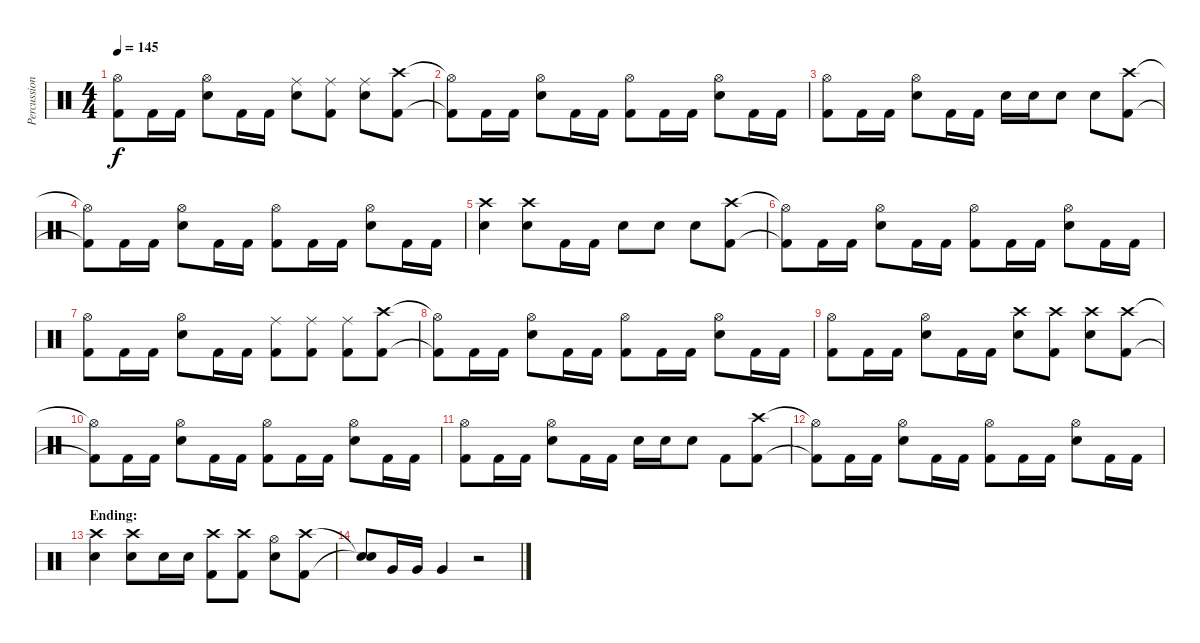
\track ("Percussion" "Percussion") {instrument percussion}
\staff {score}
\articulation defaults
\ts (4 4)
\tempo 145
\clef neutral
\ks c
("Hi-Hat (open)" "Kick (hit) 2").8{dy f} "Kick (hit) 2".16 "Kick (hit) 2".16 ("Hi-Hat (open)" "Electric Snare (hit)").8 "Kick (hit) 2".16 "Kick (hit) 2".16 ("Ride (middle)" "Electric Snare (hit)").8 ("Ride (middle)" "Kick (hit) 2").8 ("Ride (middle)" "Electric Snare (hit)").8 ("Crash high (hit)" "Kick (hit) 2").8 |
("Hi-Hat (open)"{t} "Kick (hit) 2"{t}).8 "Kick (hit) 2".16 "Kick (hit) 2".16 ("Hi-Hat (open)" "Electric Snare (hit)").8 "Kick (hit) 2".16 "Kick (hit) 2".16 ("Hi-Hat (open)" "Kick (hit) 2").8 "Kick (hit) 2".16 "Kick (hit) 2".16 ("Hi-Hat (open)" "Electric Snare (hit)").8 "Kick (hit) 2".16 "Kick (hit) 2".16 |
("Hi-Hat (open)" "Kick (hit) 2").8 "Kick (hit) 2".16 "Kick (hit) 2".16 ("Hi-Hat (open)" "Electric Snare (hit)").8 "Kick (hit) 2".16 "Kick (hit) 2".16 "Electric Snare (hit)".16 "Electric Snare (hit)".16 "Electric Snare (hit)".8 "Electric Snare (hit)".8 ("Crash high (hit)" "Kick (hit) 2").8 |
("Hi-Hat (open)"{t} "Kick (hit) 2"{t}).8 "Kick (hit) 2".16 "Kick (hit) 2".16 ("Hi-Hat (open)" "Electric Snare (hit)").8 "Kick (hit) 2".16 "Kick (hit) 2".16 ("Hi-Hat (open)" "Kick (hit) 2").8 "Kick (hit) 2".16 "Kick (hit) 2".16 ("Hi-Hat (open)" "Electric Snare (hit)").8 "Kick (hit) 2".16 "Kick (hit) 2".16 |
("Crash high (hit)" "Electric Snare (hit)").4 ("Crash high (hit)" "Electric Snare (hit)").8 "Kick (hit) 2".16 "Kick (hit) 2".16 "Electric Snare (hit)".8 "Electric Snare (hit)".8 "Electric Snare (hit)".8 ("Crash high (hit)" "Kick (hit) 2").8 |
("Hi-Hat (open)"{t} "Kick (hit) 2"{t}).8 "Kick (hit) 2".16 "Kick (hit) 2".16 ("Hi-Hat (open)" "Electric Snare (hit)").8 "Kick (hit) 2".16 "Kick (hit) 2".16 ("Hi-Hat (open)" "Kick (hit) 2").8 "Kick (hit) 2".16 "Kick (hit) 2".16 ("Hi-Hat (open)" "Electric Snare (hit)").8 "Kick (hit) 2".16 "Kick (hit) 2".16 |
("Hi-Hat (open)" "Kick (hit) 2").8 "Kick (hit) 2".16 "Kick (hit) 2".16 ("Hi-Hat (open)" "Electric Snare (hit)").8 "Kick (hit) 2".16 "Kick (hit) 2".16 ("Ride (middle)" "Kick (hit) 2").8 ("Ride (middle)" "Kick (hit) 2").8 ("Ride (middle)" "Kick (hit) 2").8 ("Crash high (hit)" "Kick (hit) 2").8 |
("Hi-Hat (open)"{t} "Kick (hit) 2"{t}).8 "Kick (hit) 2".16 "Kick (hit) 2".16 ("Hi-Hat (open)" "Electric Snare (hit)").8 "Kick (hit) 2".16 "Kick (hit) 2".16 ("Hi-Hat (open)" "Kick (hit) 2").8 "Kick (hit) 2".16 "Kick (hit) 2".16 ("Hi-Hat (open)" "Electric Snare (hit)").8 "Kick (hit) 2".16 "Kick (hit) 2".16 |
("Hi-Hat (open)" "Kick (hit) 2").8 "Kick (hit) 2".16 "Kick (hit) 2".16 ("Hi-Hat (open)" "Electric Snare (hit)").8 "Kick (hit) 2".16 "Kick (hit) 2".16 ("Crash high (hit)" "Electric Snare (hit)").8 ("Crash high (hit)" "Kick (hit) 2").8 ("Crash high (hit)" "Electric Snare (hit)").8 ("Crash high (hit)" "Kick (hit) 2").8 |
("Hi-Hat (open)"{t} "Kick (hit) 2"{t}).8 "Kick (hit) 2".16 "Kick (hit) 2".16 ("Hi-Hat (open)" "Electric Snare (hit)").8 "Kick (hit) 2".16 "Kick (hit) 2".16 ("Hi-Hat (open)" "Kick (hit) 2").8 "Kick (hit) 2".16 "Kick (hit) 2".16 ("Hi-Hat (open)" "Electric Snare (hit)").8 "Kick (hit) 2".16 "Kick (hit) 2".16 |
("Hi-Hat (open)" "Kick (hit) 2").8 "Kick (hit) 2".16 "Kick (hit) 2".16 ("Hi-Hat (open)" "Electric Snare (hit)").8 "Kick (hit) 2".16 "Kick (hit) 2".16 "Electric Snare (hit)".16 "Electric Snare (hit)".16 "Electric Snare (hit)".8 "Kick (hit) 2".8 ("Crash high (hit)" "Kick (hit) 2").8 |
("Hi-Hat (open)"{t} "Kick (hit) 2"{t}).8 "Kick (hit) 2".16 "Kick (hit) 2".16 ("Hi-Hat (open)" "Electric Snare (hit)").8 "Kick (hit) 2".16 "Kick (hit) 2".16 ("Hi-Hat (open)" "Kick (hit) 2").8 "Kick (hit) 2".16 "Kick (hit) 2".16 ("Hi-Hat (open)" "Electric Snare (hit)").8 "Kick (hit) 2".16 "Kick (hit) 2".16 |
\section ("" "Ending:")
("Crash high (hit)" "Electric Snare (hit)").4 ("Crash high (hit)" "Electric Snare (hit)").8 "Electric Snare (hit)".16 "Electric Snare (hit)".16 ("Crash high (hit)" "Kick (hit) 2").8 ("Crash high (hit)" "Kick (hit) 2").8 ("Hi-Hat (open)" "Electric Snare (hit)").8 ("Crash high (hit)" "Kick (hit) 2").8 |
("Snare (hit)"{t} "Snare (hit)"{t}).8 "Very Low Tom (hit)".16 "Very Low Tom (hit)".16 "Very Low Tom (hit)".4 r.2
